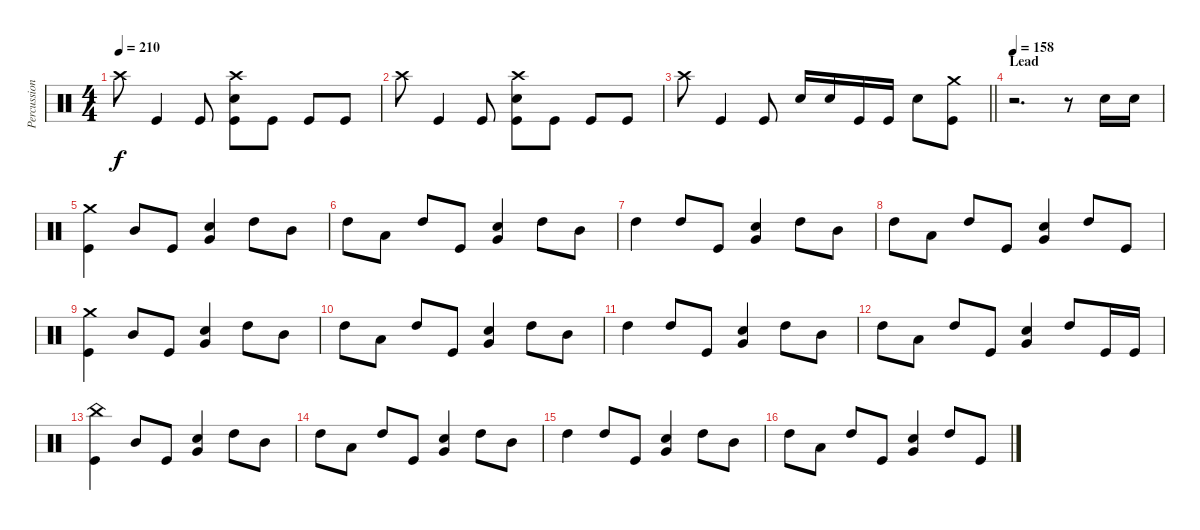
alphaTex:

\track ("Percussion" "Percussion") {instrument percussion}
\staff {score}
\articulation defaults
\ts (4 4)
\tempo 210
\clef neutral
\ks c "Crash high (hit)".8{dy f} "Kick (hit)".4 "Kick (hit)".8
("Crash high (hit)" "Electric Snare (hit)" "Kick (hit)").8 "Kick (hit)".8 "Kick (hit)".8 "Kick (hit)".8 |
"Crash high (hit)".8 "Kick (hit)".4 "Kick (hit)".8 ("Crash high (hit)" "Electric Snare (hit)" "Kick (hit)").8 "Kick (hit)".8 "Kick (hit)".8 "Kick (hit)".8 |
\barLineRight lightlight "Crash high (hit)".8 "Kick (hit)".4 "Kick (hit)".8 "Electric Snare (hit)".16 "Electric Snare (hit)".16 "Kick (hit)".16 "Kick (hit)".16 "Electric Snare (hit)".8
("Crash medium (hit)" "Kick (hit)").8 |
\section ("" "Lead")
\tempo 158
r.2{d} r.8 "Electric Snare (hit)".16 "Electric Snare (hit)".16 |
("Crash medium (hit)" "Kick (hit)").4 "Mid Tom (hit)".8 "Kick (hit)".8 ("Electric Snare (hit)" "Very Low Tom (hit)").4 "High Tom (hit)".8 "Mid Tom (hit)".8 |
"High Tom (hit)".8 "Low Tom (hit)".8 "High Tom (hit)".8 "Kick (hit)".8 ("Electric Snare (hit)" "Very Low Tom (hit)").4 "High Tom (hit)".8 "Mid Tom (hit)".8 |
"High Tom (hit)".4 "High Tom (hit)".8 "Kick (hit)".8 ("Electric Snare (hit)" "Very Low Tom (hit)").4 "High Tom (hit)".8 "Mid Tom (hit)".8 |
"High Tom (hit)".8 "Low Tom (hit)".8 "High Tom (hit)".8 "Kick (hit)".8 ("Electric Snare (hit)" "Very Low Tom (hit)").4 "High Tom (hit)".8 "Kick (hit)".8 |
("Crash medium (hit)" "Kick (hit)").4 "Mid Tom (hit)".8 "Kick (hit)".8 ("Electric Snare (hit)" "Very Low Tom (hit)").4 "High Tom (hit)".8 "Mid Tom (hit)".8 |
"High Tom (hit)".8 "Low Tom (hit)".8 "High Tom (hit)".8 "Kick (hit)".8 ("Electric Snare (hit)" "Very Low Tom (hit)").4 "High Tom (hit)".8 "Mid Tom (hit)".8 |
"High Tom (hit)".4 "High Tom (hit)".8 "Kick (hit)".8 ("Electric Snare (hit)" "Very Low Tom (hit)").4 "High Tom (hit)".8 "Mid Tom (hit)".8 |
"High Tom (hit)".8 "Low Tom (hit)".8 "High Tom (hit)".8 "Kick (hit)".8 ("Electric Snare (hit)" "Very Low Tom (hit)").4 "High Tom (hit)".8 "Kick (hit)".16 "Kick (hit)".16 |
("China (hit)" "Kick (hit)").4 "Mid Tom (hit)".8 "Kick (hit)".8 ("Electric Snare (hit)" "Very Low Tom (hit)").4 "High Tom (hit)".8 "Mid Tom (hit)".8 |
"High Tom (hit)".8 "Low Tom (hit)".8 "High Tom (hit)".8 "Kick (hit)".8 ("Electric Snare (hit)" "Very Low Tom (hit)").4 "High Tom (hit)".8 "Mid Tom (hit)".8 |
"High Tom (hit)".4 "High Tom (hit)".8 "Kick (hit)".8 ("Electric Snare (hit)" "Very Low Tom (hit)").4 "High Tom (hit)".8 "Mid Tom (hit)".8 |
"High Tom (hit)".8 "Low Tom (hit)".8 "High Tom (hit)".8 "Kick (hit)".8 ("Electric Snare (hit)" "Very Low Tom (hit)").4 "High Tom (hit)".8 "Kick (hit)".8
